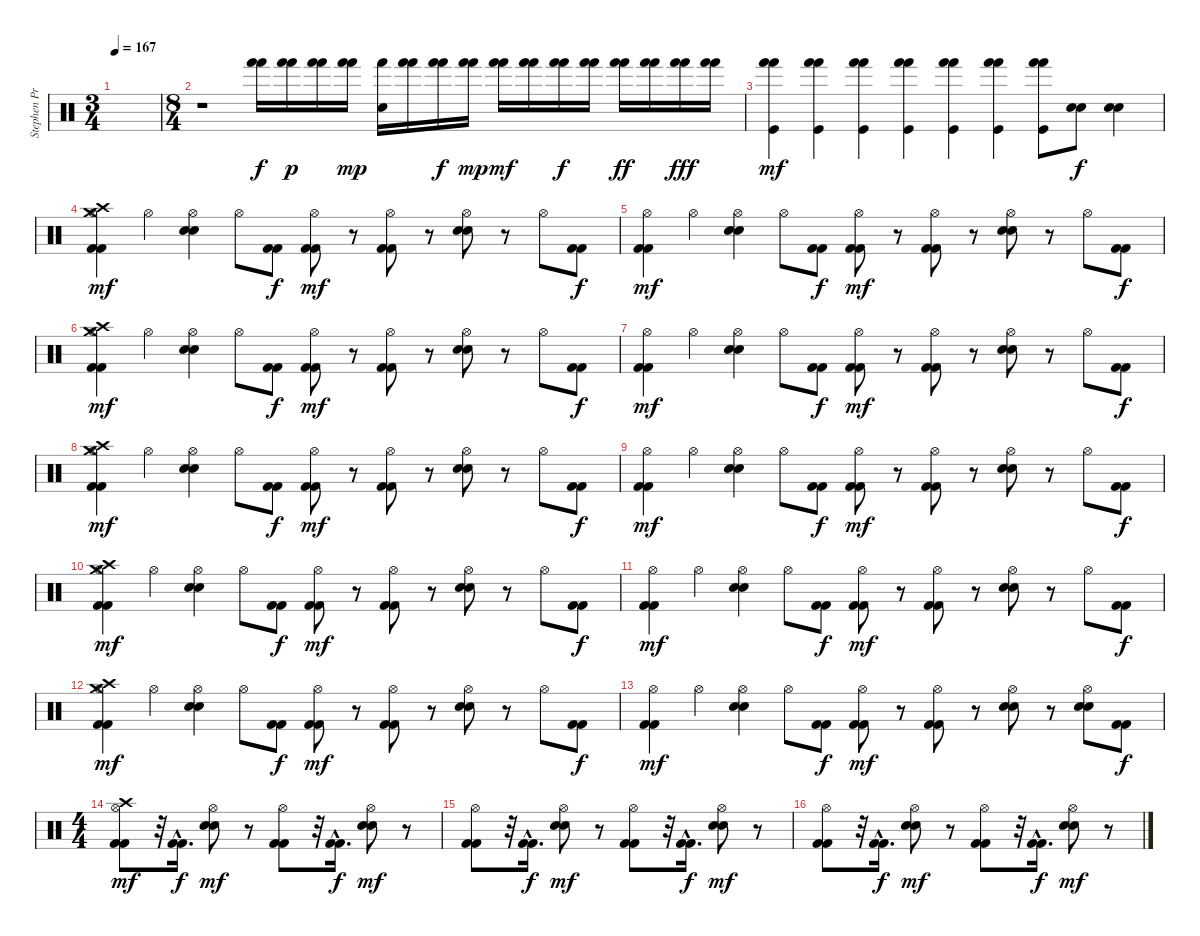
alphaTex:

\track ("Stephen Priestly  (Drums)" "Stephen Pr") {instrument percussion}
\staff {score}
\articulation defaults
\ts (3 4)
\tempo 167
\clef neutral
\ks c
|
\ts (8 4)
r.1 ("Hand (hit)" "Hand (hit)").16 ("Hand (hit)" "Hand (hit)").16{dy p} ("Hand (hit)" "Hand (hit)").16 ("Hand (hit)" "Hand (hit)").16{dy mp} ("Hand (hit)" "Snare (hit)").16 ("Hand (hit)" "Hand (hit)").16 ("Hand (hit)" "Hand (hit)").16{dy f} ("Hand (hit)" "Hand (hit)").16{dy mp} ("Hand (hit)" "Hand (hit)").16{dy mf} ("Hand (hit)" "Hand (hit)").16 ("Hand (hit)" "Hand (hit)").16{dy f} ("Hand (hit)" "Hand (hit)").16 ("Hand (hit)" "Hand (hit)").16{dy ff} ("Hand (hit)" "Hand (hit)").16 ("Hand (hit)" "Hand (hit)").16{dy fff} ("Hand (hit)" "Hand (hit)").16 |
("Hand (hit)" "Hand (hit)" "Kick (hit)").4{dy mf} ("Hand (hit)" "Hand (hit)" "Kick (hit)").4 ("Hand (hit)" "Hand (hit)" "Kick (hit)").4 ("Hand (hit)" "Hand (hit)" "Kick (hit)").4 ("Hand (hit)" "Hand (hit)" "Kick (hit)").4 ("Hand (hit)" "Hand (hit)" "Kick (hit)").4 ("Hand (hit)" "Hand (hit)" "Kick (hit)").8 ("Electric Snare (hit)" "Electric Snare (hit)").8{dy f} ("Electric Snare (hit)" "Electric Snare (hit)").4 |
("Crash high (hit)" "Crash medium (hit)" "Hi-Hat (open)" "Kick (hit) 2" "Kick (hit) 2").4{dy mf} "Hi-Hat (open)".4 ("Hi-Hat (open)" "Electric Snare (hit)" "Electric Snare (hit)").4 "Hi-Hat (open)".8 ("Kick (hit) 2" "Kick (hit) 2").8{dy f} ("Hi-Hat (open)" "Kick (hit) 2" "Kick (hit) 2").8{dy mf} r.8 ("Hi-Hat (open)" "Kick (hit) 2" "Kick (hit) 2").8 r.8 ("Hi-Hat (open)" "Electric Snare (hit)" "Electric Snare (hit)").8 r.8 "Hi-Hat (open)".8 ("Kick (hit) 2" "Kick (hit) 2").8{dy f} |
("Hi-Hat (open)" "Kick (hit) 2" "Kick (hit) 2").4{dy mf} "Hi-Hat (open)".4 ("Hi-Hat (open)" "Electric Snare (hit)" "Electric Snare (hit)").4 "Hi-Hat (open)".8 ("Kick (hit) 2" "Kick (hit) 2").8{dy f} ("Hi-Hat (open)" "Kick (hit) 2" "Kick (hit) 2").8{dy mf} r.8 ("Hi-Hat (open)" "Kick (hit) 2" "Kick (hit) 2").8 r.8 ("Hi-Hat (open)" "Electric Snare (hit)" "Electric Snare (hit)").8 r.8 "Hi-Hat (open)".8 ("Kick (hit) 2" "Kick (hit) 2").8{dy f} |
("Crash high (hit)" "Crash medium (hit)" "Hi-Hat (open)" "Kick (hit) 2" "Kick (hit) 2").4{dy mf} "Hi-Hat (open)".4 ("Hi-Hat (open)" "Electric Snare (hit)" "Electric Snare (hit)").4 "Hi-Hat (open)".8 ("Kick (hit) 2" "Kick (hit) 2").8{dy f} ("Hi-Hat (open)" "Kick (hit) 2" "Kick (hit) 2").8{dy mf} r.8 ("Hi-Hat (open)" "Kick (hit) 2" "Kick (hit) 2").8 r.8 ("Hi-Hat (open)" "Electric Snare (hit)" "Electric Snare (hit)").8 r.8 "Hi-Hat (open)".8 ("Kick (hit) 2" "Kick (hit) 2").8{dy f} |
("Hi-Hat (open)" "Kick (hit) 2" "Kick (hit) 2").4{dy mf} "Hi-Hat (open)".4 ("Hi-Hat (open)" "Electric Snare (hit)" "Electric Snare (hit)").4 "Hi-Hat (open)".8 ("Kick (hit) 2" "Kick (hit) 2").8{dy f} ("Hi-Hat (open)" "Kick (hit) 2" "Kick (hit) 2").8{dy mf} r.8 ("Hi-Hat (open)" "Kick (hit) 2" "Kick (hit) 2").8 r.8 ("Hi-Hat (open)" "Electric Snare (hit)" "Electric Snare (hit)").8 r.8 "Hi-Hat (open)".8 ("Kick (hit) 2" "Kick (hit) 2").8{dy f} |
("Crash high (hit)" "Crash medium (hit)" "Hi-Hat (open)" "Kick (hit) 2" "Kick (hit) 2").4{dy mf} "Hi-Hat (open)".4 ("Hi-Hat (open)" "Electric Snare (hit)" "Electric Snare (hit)").4 "Hi-Hat (open)".8 ("Kick (hit) 2" "Kick (hit) 2").8{dy f} ("Hi-Hat (open)" "Kick (hit) 2" "Kick (hit) 2").8{dy mf} r.8 ("Hi-Hat (open)" "Kick (hit) 2" "Kick (hit) 2").8 r.8 ("Hi-Hat (open)" "Electric Snare (hit)" "Electric Snare (hit)").8 r.8 "Hi-Hat (open)".8 ("Kick (hit) 2" "Kick (hit) 2").8{dy f} |
("Hi-Hat (open)" "Kick (hit) 2" "Kick (hit) 2").4{dy mf} "Hi-Hat (open)".4 ("Hi-Hat (open)" "Electric Snare (hit)" "Electric Snare (hit)").4 "Hi-Hat (open)".8 ("Kick (hit) 2" "Kick (hit) 2").8{dy f} ("Hi-Hat (open)" "Kick (hit) 2" "Kick (hit) 2").8{dy mf} r.8 ("Hi-Hat (open)" "Kick (hit) 2" "Kick (hit) 2").8 r.8 ("Hi-Hat (open)" "Electric Snare (hit)" "Electric Snare (hit)").8 r.8 "Hi-Hat (open)".8 ("Kick (hit) 2" "Kick (hit) 2").8{dy f} |
("Crash high (hit)" "Crash medium (hit)" "Hi-Hat (open)" "Kick (hit) 2" "Kick (hit) 2").4{dy mf} "Hi-Hat (open)".4 ("Hi-Hat (open)" "Electric Snare (hit)" "Electric Snare (hit)").4 "Hi-Hat (open)".8 ("Kick (hit) 2" "Kick (hit) 2").8{dy f} ("Hi-Hat (open)" "Kick (hit) 2" "Kick (hit) 2").8{dy mf} r.8 ("Hi-Hat (open)" "Kick (hit) 2" "Kick (hit) 2").8 r.8 ("Hi-Hat (open)" "Electric Snare (hit)" "Electric Snare (hit)").8 r.8 "Hi-Hat (open)".8 ("Kick (hit) 2" "Kick (hit) 2").8{dy f} |
("Hi-Hat (open)" "Kick (hit) 2" "Kick (hit) 2").4{dy mf} "Hi-Hat (open)".4 ("Hi-Hat (open)" "Electric Snare (hit)" "Electric Snare (hit)").4 "Hi-Hat (open)".8 ("Kick (hit) 2" "Kick (hit) 2").8{dy f} ("Hi-Hat (open)" "Kick (hit) 2" "Kick (hit) 2").8{dy mf} r.8 ("Hi-Hat (open)" "Kick (hit) 2" "Kick (hit) 2").8 r.8 ("Hi-Hat (open)" "Electric Snare (hit)" "Electric Snare (hit)").8 r.8 "Hi-Hat (open)".8 ("Kick (hit) 2" "Kick (hit) 2").8{dy f} |
("Crash high (hit)" "Crash medium (hit)" "Hi-Hat (open)" "Kick (hit) 2" "Kick (hit) 2").4{dy mf} "Hi-Hat (open)".4 ("Hi-Hat (open)" "Electric Snare (hit)" "Electric Snare (hit)").4 "Hi-Hat (open)".8 ("Kick (hit) 2" "Kick (hit) 2").8{dy f} ("Hi-Hat (open)" "Kick (hit) 2" "Kick (hit) 2").8{dy mf} r.8 ("Hi-Hat (open)" "Kick (hit) 2" "Kick (hit) 2").8 r.8 ("Hi-Hat (open)" "Electric Snare (hit)" "Electric Snare (hit)").8 r.8 "Hi-Hat (open)".8 ("Kick (hit) 2" "Kick (hit) 2").8{dy f} |
("Hi-Hat (open)" "Kick (hit) 2" "Kick (hit) 2").4{dy mf} "Hi-Hat (open)".4 ("Hi-Hat (open)" "Electric Snare (hit)" "Electric Snare (hit)").4 "Hi-Hat (open)".8 ("Kick (hit) 2" "Kick (hit) 2").8{dy f} ("Hi-Hat (open)" "Kick (hit) 2" "Kick (hit) 2").8{dy mf} r.8 ("Hi-Hat (open)" "Kick (hit) 2" "Kick (hit) 2").8 r.8 ("Hi-Hat (open)" "Electric Snare (hit)" "Electric Snare (hit)").8 r.8 ("Hi-Hat (open)" "Electric Snare (hit)" "Electric Snare (hit)").8 ("Kick (hit) 2" "Kick (hit) 2").8{dy f} |
\ts (4 4)
("Crash high (hit)" "Hi-Hat (open)" "Kick (hit) 2" "Kick (hit) 2").8{dy mf} r.32 ("Kick (hit) 2"{hac} "Kick (hit) 2"{hac}).16{d dy f} ("Hi-Hat (open)" "Electric Snare (hit)" "Electric Snare (hit)").8{dy mf} r.8 ("Hi-Hat (open)" "Kick (hit) 2" "Kick (hit) 2").8 r.32 ("Kick (hit) 2"{hac} "Kick (hit) 2"{hac}).16{d dy f} ("Hi-Hat (open)" "Electric Snare (hit)" "Electric Snare (hit)").8{dy mf} r.8 |
("Hi-Hat (open)" "Kick (hit) 2" "Kick (hit) 2").8 r.32 ("Kick (hit) 2"{hac} "Kick (hit) 2"{hac}).16{d dy f} ("Hi-Hat (open)" "Electric Snare (hit)" "Electric Snare (hit)").8{dy mf} r.8 ("Hi-Hat (open)" "Kick (hit) 2" "Kick (hit) 2").8 r.32 ("Kick (hit) 2"{hac} "Kick (hit) 2"{hac}).16{d dy f} ("Hi-Hat (open)" "Electric Snare (hit)" "Electric Snare (hit)").8{dy mf} r.8 |
("Hi-Hat (open)" "Kick (hit) 2" "Kick (hit) 2").8 r.32 ("Kick (hit) 2"{hac} "Kick (hit) 2"{hac}).16{d dy f} ("Hi-Hat (open)" "Electric Snare (hit)" "Electric Snare (hit)").8{dy mf} r.8 ("Hi-Hat (open)" "Kick (hit) 2" "Kick (hit) 2").8 r.32 ("Kick (hit) 2"{hac} "Kick (hit) 2"{hac}).16{d dy f} ("Hi-Hat (open)" "Electric Snare (hit)" "Electric Snare (hit)").8{dy mf} r.8
